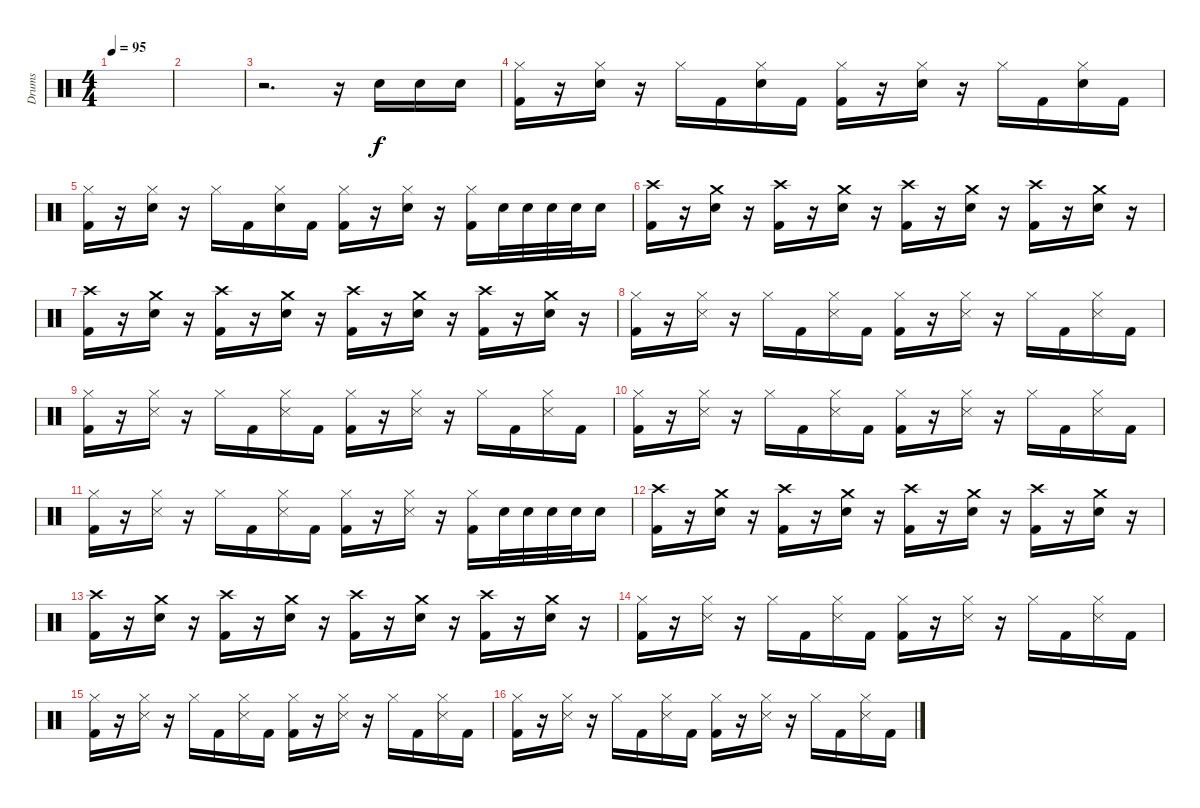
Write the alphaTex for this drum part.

\track ("Drums" "Drums") {instrument percussion}
\staff {score}
\articulation defaults
\ts (4 4)
\tempo 95
\clef neutral
\ks c
|
|
r.2{d} r.16 "Snare (hit) 2".16 "Snare (hit) 2".16 "Snare (hit) 2".16 |
("Hi-Hat (closed)" "Kick (hit) 2").16 r.16 ("Hi-Hat (closed)" "Snare (hit) 2").16 r.16 "Hi-Hat (closed)".16 "Kick (hit) 2".16 ("Hi-Hat (closed)" "Snare (hit) 2").16 "Kick (hit) 2".16 ("Hi-Hat (closed)" "Kick (hit) 2").16 r.16 ("Hi-Hat (closed)" "Snare (hit) 2").16 r.16 "Hi-Hat (closed)".16 "Kick (hit) 2".16 ("Hi-Hat (closed)" "Snare (hit) 2").16 "Kick (hit) 2".16 |
("Hi-Hat (closed)" "Kick (hit) 2").16 r.16 ("Hi-Hat (closed)" "Snare (hit) 2").16 r.16 "Hi-Hat (closed)".16 "Kick (hit) 2".16 ("Hi-Hat (closed)" "Snare (hit) 2").16 "Kick (hit) 2".16 ("Hi-Hat (closed)" "Kick (hit) 2").16 r.16 ("Hi-Hat (closed)" "Snare (hit) 2").16 r.16 ("Hi-Hat (closed)" "Kick (hit) 2").16 "Snare (hit) 2".32 "Snare (hit) 2".32 "Snare (hit) 2".32 "Snare (hit) 2".32 "Snare (hit) 2".16 |
("Crash high (hit)" "Kick (hit) 2").16 r.16 ("Crash medium (hit)" "Snare (hit) 2").16 r.16 ("Crash high (hit)" "Kick (hit) 2").16 r.16 ("Crash medium (hit)" "Snare (hit) 2").16 r.16 ("Crash high (hit)" "Kick (hit) 2").16 r.16 ("Crash medium (hit)" "Snare (hit) 2").16 r.16 ("Crash high (hit)" "Kick (hit) 2").16 r.16 ("Crash medium (hit)" "Snare (hit) 2").16 r.16 |
("Crash high (hit)" "Kick (hit) 2").16 r.16 ("Crash medium (hit)" "Snare (hit) 2").16 r.16 ("Crash high (hit)" "Kick (hit) 2").16 r.16 ("Crash medium (hit)" "Snare (hit) 2").16 r.16 ("Crash high (hit)" "Kick (hit) 2").16 r.16 ("Crash medium (hit)" "Snare (hit) 2").16 r.16 ("Crash high (hit)" "Kick (hit) 2").16 r.16 ("Crash medium (hit)" "Snare (hit) 2").16 r.16 |
("Hi-Hat (closed)" "Kick (hit) 2").16 r.16 ("Hi-Hat (closed)" "Snare (side stick) 3").16 r.16 "Hi-Hat (closed)".16 "Kick (hit) 2".16 ("Hi-Hat (closed)" "Snare (side stick) 3").16 "Kick (hit) 2".16 ("Hi-Hat (closed)" "Kick (hit) 2").16 r.16 ("Hi-Hat (closed)" "Snare (side stick) 3").16 r.16 "Hi-Hat (closed)".16 "Kick (hit) 2".16 ("Hi-Hat (closed)" "Snare (side stick) 3").16 "Kick (hit) 2".16 |
("Hi-Hat (closed)" "Kick (hit) 2").16 r.16 ("Hi-Hat (closed)" "Snare (side stick) 3").16 r.16 "Hi-Hat (closed)".16 "Kick (hit) 2".16 ("Hi-Hat (closed)" "Snare (side stick) 3").16 "Kick (hit) 2".16 ("Hi-Hat (closed)" "Kick (hit) 2").16 r.16 ("Hi-Hat (closed)" "Snare (side stick) 3").16 r.16 "Hi-Hat (closed)".16 "Kick (hit) 2".16 ("Hi-Hat (closed)" "Snare (side stick) 3").16 "Kick (hit) 2".16 |
("Hi-Hat (closed)" "Kick (hit) 2").16 r.16 ("Hi-Hat (closed)" "Snare (side stick) 3").16 r.16 "Hi-Hat (closed)".16 "Kick (hit) 2".16 ("Hi-Hat (closed)" "Snare (side stick) 3").16 "Kick (hit) 2".16 ("Hi-Hat (closed)" "Kick (hit) 2").16 r.16 ("Hi-Hat (closed)" "Snare (side stick) 3").16 r.16 "Hi-Hat (closed)".16 "Kick (hit) 2".16 ("Hi-Hat (closed)" "Snare (side stick) 3").16 "Kick (hit) 2".16 |
("Hi-Hat (closed)" "Kick (hit) 2").16 r.16 ("Hi-Hat (closed)" "Snare (side stick) 3").16 r.16 "Hi-Hat (closed)".16 "Kick (hit) 2".16 ("Hi-Hat (closed)" "Snare (side stick) 3").16 "Kick (hit) 2".16 ("Hi-Hat (closed)" "Kick (hit) 2").16 r.16 ("Hi-Hat (closed)" "Snare (side stick) 3").16 r.16 ("Hi-Hat (closed)" "Kick (hit) 2").16 "Snare (hit) 2".32 "Snare (hit) 2".32 "Snare (hit) 2".32 "Snare (hit) 2".32 "Snare (hit) 2".16 |
("Crash high (hit)" "Kick (hit) 2").16 r.16 ("Crash medium (hit)" "Snare (hit) 2").16 r.16 ("Crash high (hit)" "Kick (hit) 2").16 r.16 ("Crash medium (hit)" "Snare (hit) 2").16 r.16 ("Crash high (hit)" "Kick (hit) 2").16 r.16 ("Crash medium (hit)" "Snare (hit) 2").16 r.16 ("Crash high (hit)" "Kick (hit) 2").16 r.16 ("Crash medium (hit)" "Snare (hit) 2").16 r.16 |
("Crash high (hit)" "Kick (hit) 2").16 r.16 ("Crash medium (hit)" "Snare (hit) 2").16 r.16 ("Crash high (hit)" "Kick (hit) 2").16 r.16 ("Crash medium (hit)" "Snare (hit) 2").16 r.16 ("Crash high (hit)" "Kick (hit) 2").16 r.16 ("Crash medium (hit)" "Snare (hit) 2").16 r.16 ("Crash high (hit)" "Kick (hit) 2").16 r.16 ("Crash medium (hit)" "Snare (hit) 2").16 r.16 |
("Hi-Hat (closed)" "Kick (hit) 2").16 r.16 ("Hi-Hat (closed)" "Snare (side stick) 3").16 r.16 "Hi-Hat (closed)".16 "Kick (hit) 2".16 ("Hi-Hat (closed)" "Snare (side stick) 3").16 "Kick (hit) 2".16 ("Hi-Hat (closed)" "Kick (hit) 2").16 r.16 ("Hi-Hat (closed)" "Snare (side stick) 3").16 r.16 "Hi-Hat (closed)".16 "Kick (hit) 2".16 ("Hi-Hat (closed)" "Snare (side stick) 3").16 "Kick (hit) 2".16 |
("Hi-Hat (closed)" "Kick (hit) 2").16 r.16 ("Hi-Hat (closed)" "Snare (side stick) 3").16 r.16 "Hi-Hat (closed)".16 "Kick (hit) 2".16 ("Hi-Hat (closed)" "Snare (side stick) 3").16 "Kick (hit) 2".16 ("Hi-Hat (closed)" "Kick (hit) 2").16 r.16 ("Hi-Hat (closed)" "Snare (side stick) 3").16 r.16 "Hi-Hat (closed)".16 "Kick (hit) 2".16 ("Hi-Hat (closed)" "Snare (side stick) 3").16 "Kick (hit) 2".16 |
("Hi-Hat (closed)" "Kick (hit) 2").16 r.16 ("Hi-Hat (closed)" "Snare (side stick) 3").16 r.16 "Hi-Hat (closed)".16 "Kick (hit) 2".16 ("Hi-Hat (closed)" "Snare (side stick) 3").16 "Kick (hit) 2".16 ("Hi-Hat (closed)" "Kick (hit) 2").16 r.16 ("Hi-Hat (closed)" "Snare (side stick) 3").16 r.16 "Hi-Hat (closed)".16 "Kick (hit) 2".16 ("Hi-Hat (closed)" "Snare (side stick) 3").16 "Kick (hit) 2".16
